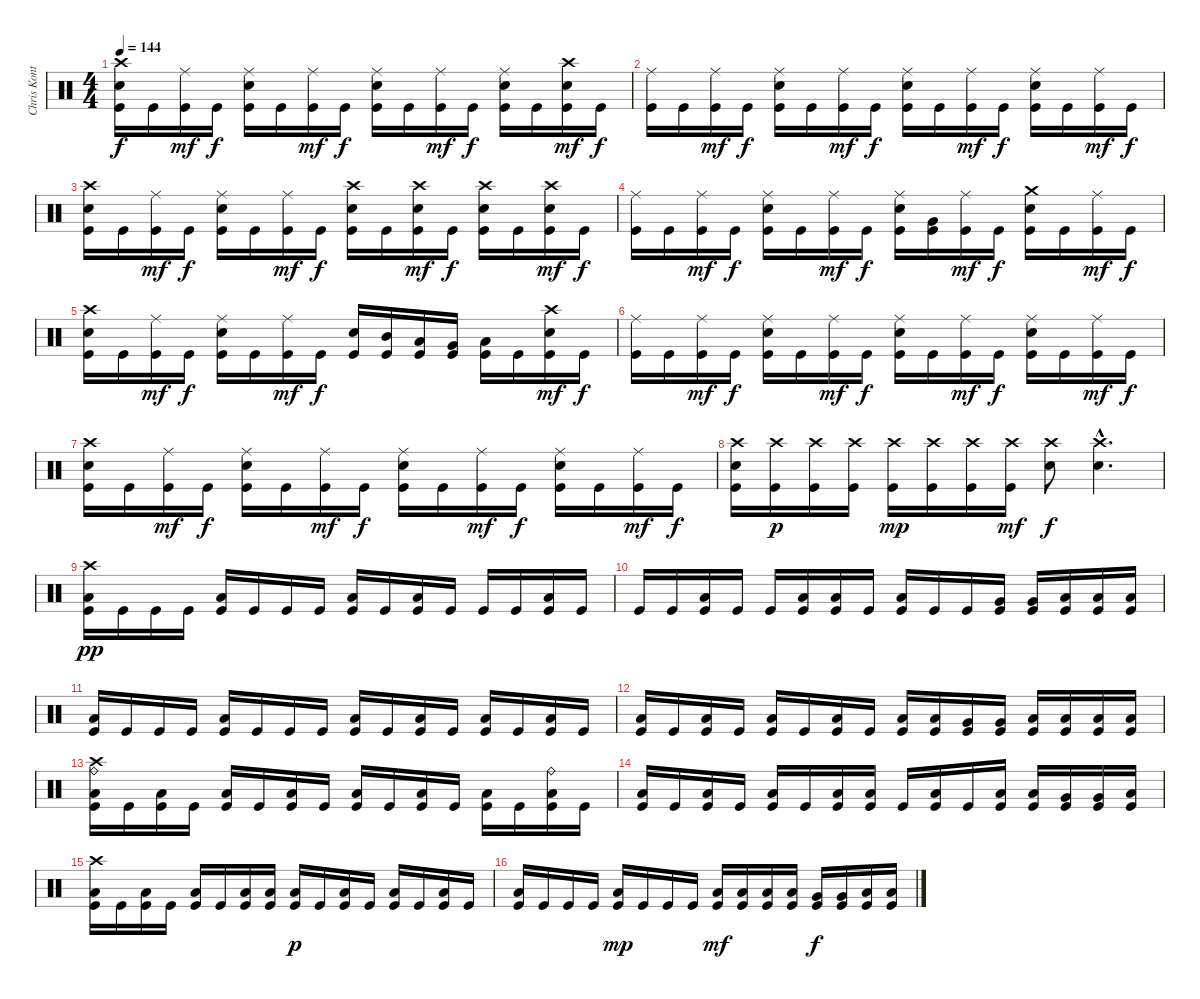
\track ("Chris Kontos" "Chris Kont") {instrument percussion}
\staff {score}
\articulation defaults
\ts (4 4)
\tempo 144
\clef neutral
\ks c
("Crash high (hit)" "Electric Snare (hit)" "Kick (hit)").16{dy f} "Kick (hit)".16 ("Ride (middle)" "Kick (hit)").16{dy mf} "Kick (hit)".16{dy f} ("Ride (middle)" "Electric Snare (hit)" "Kick (hit)").16 "Kick (hit)".16 ("Ride (middle)" "Kick (hit)").16{dy mf} "Kick (hit)".16{dy f} ("Ride (middle)" "Electric Snare (hit)" "Kick (hit)").16 "Kick (hit)".16 ("Ride (middle)" "Kick (hit)").16{dy mf} "Kick (hit)".16{dy f} ("Ride (middle)" "Electric Snare (hit)" "Kick (hit)").16 "Kick (hit)".16 ("Crash high (hit)" "Electric Snare (hit)" "Kick (hit)").16{dy mf} "Kick (hit)".16{dy f} |
("Ride (middle)" "Kick (hit)").16 "Kick (hit)".16 ("Ride (middle)" "Kick (hit)").16{dy mf} "Kick (hit)".16{dy f} ("Ride (middle)" "Electric Snare (hit)" "Kick (hit)").16 "Kick (hit)".16 ("Ride (middle)" "Kick (hit)").16{dy mf} "Kick (hit)".16{dy f} ("Ride (middle)" "Electric Snare (hit)" "Kick (hit)").16 "Kick (hit)".16 ("Ride (middle)" "Kick (hit)").16{dy mf} "Kick (hit)".16{dy f} ("Ride (middle)" "Electric Snare (hit)" "Kick (hit)").16 "Kick (hit)".16 ("Ride (middle)" "Kick (hit)").16{dy mf} "Kick (hit)".16{dy f} |
("Crash high (hit)" "Electric Snare (hit)" "Kick (hit)").16 "Kick (hit)".16 ("Ride (middle)" "Kick (hit)").16{dy mf} "Kick (hit)".16{dy f} ("Ride (middle)" "Electric Snare (hit)" "Kick (hit)").16 "Kick (hit)".16 ("Ride (middle)" "Kick (hit)").16{dy mf} "Kick (hit)".16{dy f} ("Crash high (hit)" "Electric Snare (hit)" "Kick (hit)").16 "Kick (hit)".16 ("Crash high (hit)" "Electric Snare (hit)" "Kick (hit)").16{dy mf} "Kick (hit)".16{dy f} ("Crash high (hit)" "Electric Snare (hit)" "Kick (hit)").16 "Kick (hit)".16 ("Crash high (hit)" "Electric Snare (hit)" "Kick (hit)").16{dy mf} "Kick (hit)".16{dy f} |
("Ride (middle)" "Kick (hit)").16 "Kick (hit)".16 ("Ride (middle)" "Kick (hit)").16{dy mf} "Kick (hit)".16{dy f} ("Ride (middle)" "Electric Snare (hit)" "Kick (hit)").16 "Kick (hit)".16 ("Ride (middle)" "Kick (hit)").16{dy mf} "Kick (hit)".16{dy f} ("Ride (middle)" "Electric Snare (hit)" "Kick (hit)").16 ("Very Low Tom (hit)" "Kick (hit)").16 ("Ride (middle)" "Kick (hit)").16{dy mf} "Kick (hit)".16{dy f} ("Crash medium (hit)" "Electric Snare (hit)" "Kick (hit)").16 "Kick (hit)".16 ("Ride (middle)" "Kick (hit)").16{dy mf} "Kick (hit)".16{dy f} |
("Crash high (hit)" "Electric Snare (hit)" "Kick (hit)").16 "Kick (hit)".16 ("Ride (middle)" "Kick (hit)").16{dy mf} "Kick (hit)".16{dy f} ("Ride (middle)" "Electric Snare (hit)" "Kick (hit)").16 "Kick (hit)".16 ("Ride (middle)" "Kick (hit)").16{dy mf} "Kick (hit)".16{dy f} ("Electric Snare (hit)" "Kick (hit)").16 ("Mid Tom (hit)" "Kick (hit)").16 ("Low Tom (hit)" "Kick (hit)").16 ("Very Low Tom (hit)" "Kick (hit)").16 ("Low Floor Tom (hit)" "Kick (hit)").16 "Kick (hit)".16 ("Crash high (hit)" "Electric Snare (hit)" "Kick (hit)").16{dy mf} "Kick (hit)".16{dy f} |
("Ride (middle)" "Kick (hit)").16 "Kick (hit)".16 ("Ride (middle)" "Kick (hit)").16{dy mf} "Kick (hit)".16{dy f} ("Ride (middle)" "Electric Snare (hit)" "Kick (hit)").16 "Kick (hit)".16 ("Ride (middle)" "Kick (hit)").16{dy mf} "Kick (hit)".16{dy f} ("Ride (middle)" "Electric Snare (hit)" "Kick (hit)").16 "Kick (hit)".16 ("Ride (middle)" "Kick (hit)").16{dy mf} "Kick (hit)".16{dy f} ("Ride (middle)" "Electric Snare (hit)" "Kick (hit)").16 "Kick (hit)".16 ("Ride (middle)" "Kick (hit)").16{dy mf} "Kick (hit)".16{dy f} |
("Crash high (hit)" "Electric Snare (hit)" "Kick (hit)").16 "Kick (hit)".16 ("Ride (middle)" "Kick (hit)").16{dy mf} "Kick (hit)".16{dy f} ("Ride (middle)" "Electric Snare (hit)" "Kick (hit)").16 "Kick (hit)".16 ("Ride (middle)" "Kick (hit)").16{dy mf} "Kick (hit)".16{dy f} ("Ride (middle)" "Electric Snare (hit)" "Kick (hit)").16 "Kick (hit)".16 ("Ride (middle)" "Kick (hit)").16{dy mf} "Kick (hit)".16{dy f} ("Ride (middle)" "Electric Snare (hit)" "Kick (hit)").16 "Kick (hit)".16 ("Ride (middle)" "Kick (hit)").16{dy mf} "Kick (hit)".16{dy f} |
("Crash high (hit)" "Electric Snare (hit)" "Kick (hit)").16 ("Crash high (hit)" "Kick (hit)").16{dy p} ("Crash high (hit)" "Kick (hit)").16 ("Crash high (hit)" "Kick (hit)").16 ("Crash high (hit)" "Kick (hit)").16{dy mp} ("Crash high (hit)" "Kick (hit)").16 ("Crash high (hit)" "Kick (hit)").16 ("Crash high (hit)" "Kick (hit)").16{dy mf} ("Crash high (hit)" "Electric Snare (hit)").8{dy f} ("Crash high (hit)"{hac} "Electric Snare (hit)"{hac}).4{d} |
("Crash high (hit)" "Low Floor Tom (hit)" "Kick (hit)").16{dy pp} "Kick (hit)".16 "Kick (hit)".16 "Kick (hit)".16 ("Low Floor Tom (hit)" "Kick (hit)").16 "Kick (hit)".16 "Kick (hit)".16 "Kick (hit)".16 ("Low Floor Tom (hit)" "Kick (hit)").16 "Kick (hit)".16 ("Low Floor Tom (hit)" "Kick (hit)").16 "Kick (hit)".16 "Kick (hit)".16 "Kick (hit)".16 ("Low Floor Tom (hit)" "Kick (hit)").16 "Kick (hit)".16 |
"Kick (hit)".16 "Kick (hit)".16 ("Low Floor Tom (hit)" "Kick (hit)").16 "Kick (hit)".16 "Kick (hit)".16 ("Low Floor Tom (hit)" "Kick (hit)").16 ("Low Floor Tom (hit)" "Kick (hit)").16 "Kick (hit)".16 ("Low Floor Tom (hit)" "Kick (hit)").16 "Kick (hit)".16 "Kick (hit)".16 ("Very Low Tom (hit)" "Kick (hit)").16 ("Very Low Tom (hit)" "Kick (hit)").16 ("Low Floor Tom (hit)" "Kick (hit)").16 ("Low Floor Tom (hit)" "Kick (hit)").16 ("Low Floor Tom (hit)" "Kick (hit)").16 |
("Low Floor Tom (hit)" "Kick (hit)").16 "Kick (hit)".16 "Kick (hit)".16 "Kick (hit)".16 ("Low Floor Tom (hit)" "Kick (hit)").16 "Kick (hit)".16 "Kick (hit)".16 "Kick (hit)".16 ("Low Floor Tom (hit)" "Kick (hit)").16 "Kick (hit)".16 ("Low Floor Tom (hit)" "Kick (hit)").16 "Kick (hit)".16 ("Low Floor Tom (hit)" "Kick (hit)").16 "Kick (hit)".16 ("Low Floor Tom (hit)" "Kick (hit)").16 "Kick (hit)".16 |
("Low Floor Tom (hit)" "Kick (hit)").16 "Kick (hit)".16 ("Low Floor Tom (hit)" "Kick (hit)").16 "Kick (hit)".16 ("Low Floor Tom (hit)" "Kick (hit)").16 "Kick (hit)".16 ("Low Floor Tom (hit)" "Kick (hit)").16 "Kick (hit)".16 ("Low Tom (hit)" "Kick (hit)").16 ("Low Tom (hit)" "Kick (hit)").16 ("Very Low Tom (hit)" "Kick (hit)").16 ("Very Low Tom (hit)" "Kick (hit)").16 ("Low Floor Tom (hit)" "Kick (hit)").16 ("Low Floor Tom (hit)" "Kick (hit)").16 ("Low Floor Tom (hit)" "Kick (hit)").16 ("Low Floor Tom (hit)" "Kick (hit)").16 |
("Crash high (hit)" "Ride (bell)" "Low Floor Tom (hit)" "Kick (hit)").16 "Kick (hit)".16 ("Low Floor Tom (hit)" "Kick (hit)").16 "Kick (hit)".16 ("Low Floor Tom (hit)" "Kick (hit)").16 "Kick (hit)".16 ("Low Floor Tom (hit)" "Kick (hit)").16 "Kick (hit)".16 ("Low Floor Tom (hit)" "Kick (hit)").16 "Kick (hit)".16 ("Low Floor Tom (hit)" "Kick (hit)").16 "Kick (hit)".16 ("Low Floor Tom (hit)" "Kick (hit)").16 "Kick (hit)".16 ("Ride (bell)" "Low Floor Tom (hit)" "Kick (hit)").16 "Kick (hit)".16 |
("Low Floor Tom (hit)" "Kick (hit)").16 "Kick (hit)".16 ("Low Floor Tom (hit)" "Kick (hit)").16 "Kick (hit)".16 ("Low Floor Tom (hit)" "Kick (hit)").16 "Kick (hit)".16 ("Low Floor Tom (hit)" "Kick (hit)").16 ("Low Floor Tom (hit)" "Kick (hit)").16 "Kick (hit)".16 ("Low Floor Tom (hit)" "Kick (hit)").16 "Kick (hit)".16 ("Low Tom (hit)" "Kick (hit)").16 ("Low Tom (hit)" "Kick (hit)").16 ("Very Low Tom (hit)" "Kick (hit)").16 ("Very Low Tom (hit)" "Kick (hit)").16 ("Low Floor Tom (hit)" "Kick (hit)").16 |
("Crash high (hit)" "Low Floor Tom (hit)" "Kick (hit)").16 "Kick (hit)".16 ("Low Floor Tom (hit)" "Kick (hit)").16 "Kick (hit)".16 ("Low Floor Tom (hit)" "Kick (hit)").16 "Kick (hit)".16 ("Low Floor Tom (hit)" "Kick (hit)").16 ("Low Floor Tom (hit)" "Kick (hit)").16 ("Low Floor Tom (hit)" "Kick (hit)").16{dy p} "Kick (hit)".16 ("Low Floor Tom (hit)" "Kick (hit)").16 "Kick (hit)".16 ("Low Floor Tom (hit)" "Kick (hit)").16 "Kick (hit)".16 ("Low Floor Tom (hit)" "Kick (hit)").16 "Kick (hit)".16 |
("Low Floor Tom (hit)" "Kick (hit)").16 "Kick (hit)".16 "Kick (hit)".16 "Kick (hit)".16 ("Low Floor Tom (hit)" "Kick (hit)").16{dy mp} "Kick (hit)".16 "Kick (hit)".16 "Kick (hit)".16 ("Low Tom (hit)" "Kick (hit)").16{dy mf} ("Low Tom (hit)" "Kick (hit)").16 ("Low Tom (hit)" "Kick (hit)").16 ("Low Tom (hit)" "Kick (hit)").16 ("Very Low Tom (hit)" "Kick (hit)").16{dy f} ("Very Low Tom (hit)" "Kick (hit)").16 ("Low Floor Tom (hit)" "Kick (hit)").16 ("Low Floor Tom (hit)" "Kick (hit)").16
